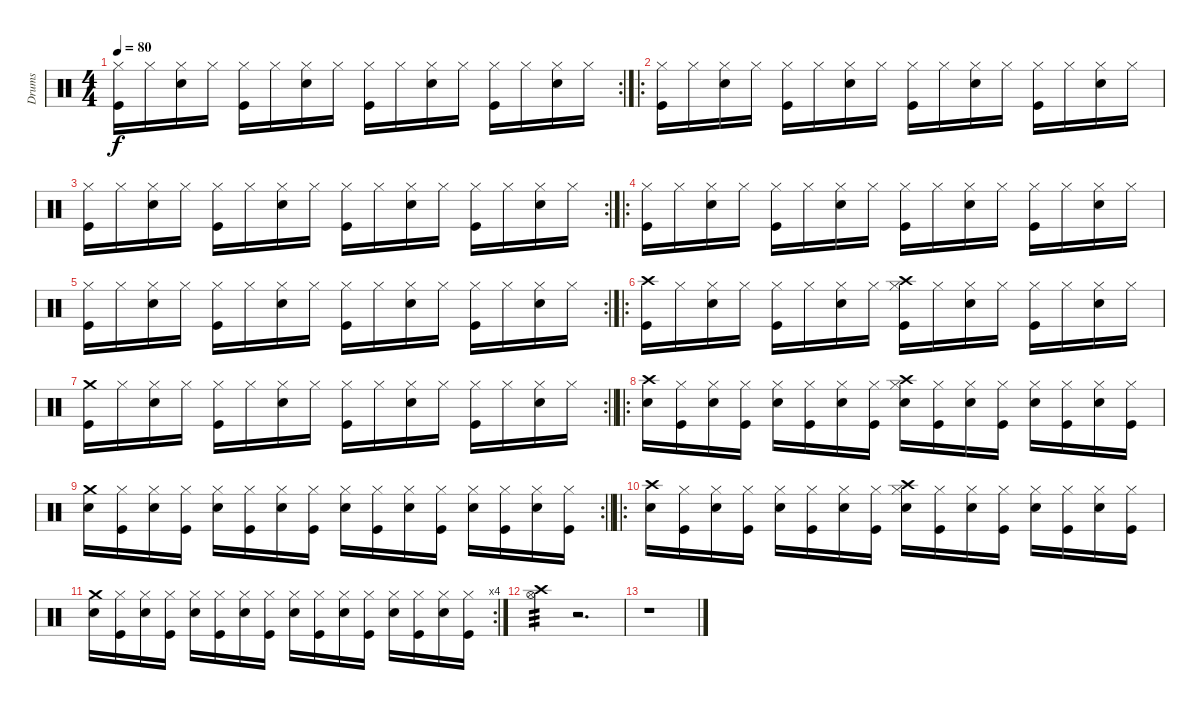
\track ("Drums" "Drums") {instrument percussion}
\staff {score}
\articulation defaults
\rc 2
\ts (4 4)
\tempo 80
\clef neutral
\ks c
("Kick (hit)" "Hi-Hat (closed)").16{dy f} "Hi-Hat (closed)".16 ("Hi-Hat (closed)" "Snare (hit) 2").16 "Hi-Hat (closed)".16 ("Hi-Hat (closed)" "Kick (hit)").16 "Hi-Hat (closed)".16 ("Hi-Hat (closed)" "Snare (hit) 2").16 "Hi-Hat (closed)".16 ("Hi-Hat (closed)" "Kick (hit)").16 "Hi-Hat (closed)".16 ("Hi-Hat (closed)" "Snare (hit) 2").16 "Hi-Hat (closed)".16 ("Hi-Hat (closed)" "Kick (hit)").16 "Hi-Hat (closed)".16 ("Hi-Hat (closed)" "Snare (hit) 2").16 "Hi-Hat (closed)".16 |
\ro
("Kick (hit)" "Hi-Hat (closed)").16 "Hi-Hat (closed)".16 ("Hi-Hat (closed)" "Snare (hit) 2").16 "Hi-Hat (closed)".16 ("Hi-Hat (closed)" "Kick (hit)").16 "Hi-Hat (closed)".16 ("Hi-Hat (closed)" "Snare (hit) 2").16 "Hi-Hat (closed)".16 ("Hi-Hat (closed)" "Kick (hit)").16 "Hi-Hat (closed)".16 ("Hi-Hat (closed)" "Snare (hit) 2").16 "Hi-Hat (closed)".16 ("Hi-Hat (closed)" "Kick (hit)").16 "Hi-Hat (closed)".16 ("Hi-Hat (closed)" "Snare (hit) 2").16 "Hi-Hat (closed)".16 |
\rc 2
("Kick (hit)" "Hi-Hat (closed)").16 "Hi-Hat (closed)".16 ("Hi-Hat (closed)" "Snare (hit) 2").16 "Hi-Hat (closed)".16 ("Hi-Hat (closed)" "Kick (hit)").16 "Hi-Hat (closed)".16 ("Hi-Hat (closed)" "Snare (hit) 2").16 "Hi-Hat (closed)".16 ("Hi-Hat (closed)" "Kick (hit)").16 "Hi-Hat (closed)".16 ("Hi-Hat (closed)" "Snare (hit) 2").16 "Hi-Hat (closed)".16 ("Hi-Hat (closed)" "Kick (hit)").16 "Hi-Hat (closed)".16 ("Hi-Hat (closed)" "Snare (hit) 2").16 "Hi-Hat (closed)".16 |
\ro
("Kick (hit)" "Hi-Hat (closed)").16 "Hi-Hat (closed)".16 ("Hi-Hat (closed)" "Snare (hit) 2").16 "Hi-Hat (closed)".16 ("Hi-Hat (closed)" "Kick (hit)").16 "Hi-Hat (closed)".16 ("Hi-Hat (closed)" "Snare (hit) 2").16 "Hi-Hat (closed)".16 ("Hi-Hat (closed)" "Kick (hit)").16 "Hi-Hat (closed)".16 ("Hi-Hat (closed)" "Snare (hit) 2").16 "Hi-Hat (closed)".16 ("Hi-Hat (closed)" "Kick (hit)").16 "Hi-Hat (closed)".16 ("Hi-Hat (closed)" "Snare (hit) 2").16 "Hi-Hat (closed)".16 |
\rc 2
("Kick (hit)" "Hi-Hat (closed)").16 "Hi-Hat (closed)".16 ("Hi-Hat (closed)" "Snare (hit) 2").16 "Hi-Hat (closed)".16 ("Hi-Hat (closed)" "Kick (hit)").16 "Hi-Hat (closed)".16 ("Hi-Hat (closed)" "Snare (hit) 2").16 "Hi-Hat (closed)".16 ("Hi-Hat (closed)" "Kick (hit)").16 "Hi-Hat (closed)".16 ("Hi-Hat (closed)" "Snare (hit) 2").16 "Hi-Hat (closed)".16 ("Hi-Hat (closed)" "Kick (hit)").16 "Hi-Hat (closed)".16 ("Hi-Hat (closed)" "Snare (hit) 2").16 "Hi-Hat (closed)".16 |
\ro
("Kick (hit)" "Crash high (hit)").16 "Hi-Hat (closed)".16 ("Hi-Hat (closed)" "Snare (hit) 2").16 "Hi-Hat (closed)".16 ("Hi-Hat (closed)" "Kick (hit)").16 "Hi-Hat (closed)".16 ("Hi-Hat (closed)" "Snare (hit) 2").16 "Hi-Hat (closed)".16 ("Hi-Hat (closed)" "Crash high (hit)" "Kick (hit)").16 "Hi-Hat (closed)".16 ("Hi-Hat (closed)" "Snare (hit) 2").16 "Hi-Hat (closed)".16 ("Hi-Hat (closed)" "Kick (hit)").16 "Hi-Hat (closed)".16 ("Hi-Hat (closed)" "Snare (hit) 2").16 "Hi-Hat (closed)".16 |
\rc 2
\barLineRight lightlight
("Kick (hit)" "Crash medium (hit)").16 "Hi-Hat (closed)".16 ("Hi-Hat (closed)" "Snare (hit) 2").16 "Hi-Hat (closed)".16 ("Hi-Hat (closed)" "Kick (hit)").16 "Hi-Hat (closed)".16 ("Hi-Hat (closed)" "Snare (hit) 2").16 "Hi-Hat (closed)".16 ("Hi-Hat (closed)" "Kick (hit)").16 "Hi-Hat (closed)".16 ("Hi-Hat (closed)" "Snare (hit) 2").16 "Hi-Hat (closed)".16 ("Hi-Hat (closed)" "Kick (hit)").16 "Hi-Hat (closed)".16 ("Hi-Hat (closed)" "Snare (hit) 2").16 "Hi-Hat (closed)".16 |
\ro
("Snare (hit) 2" "Crash high (hit)").16 ("Hi-Hat (closed)" "Kick (hit)").16 ("Hi-Hat (closed)" "Snare (hit) 2").16 ("Hi-Hat (closed)" "Kick (hit)").16 ("Hi-Hat (closed)" "Snare (hit) 2").16 ("Hi-Hat (closed)" "Kick (hit)").16 ("Hi-Hat (closed)" "Snare (hit) 2").16 ("Hi-Hat (closed)" "Kick (hit)").16 ("Hi-Hat (closed)" "Crash high (hit)" "Snare (hit) 2").16 ("Hi-Hat (closed)" "Kick (hit)").16 ("Hi-Hat (closed)" "Snare (hit) 2").16 ("Hi-Hat (closed)" "Kick (hit)").16 ("Hi-Hat (closed)" "Snare (hit) 2").16 ("Hi-Hat (closed)" "Kick (hit)").16 ("Hi-Hat (closed)" "Snare (hit) 2").16 ("Hi-Hat (closed)" "Kick (hit)").16 |
\rc 2
\barLineRight lightlight
("Snare (hit) 2" "Crash medium (hit)").16 ("Hi-Hat (closed)" "Kick (hit)").16 ("Hi-Hat (closed)" "Snare (hit) 2").16 ("Hi-Hat (closed)" "Kick (hit)").16 ("Hi-Hat (closed)" "Snare (hit) 2").16 ("Hi-Hat (closed)" "Kick (hit)").16 ("Hi-Hat (closed)" "Snare (hit) 2").16 ("Hi-Hat (closed)" "Kick (hit)").16 ("Hi-Hat (closed)" "Snare (hit) 2").16 ("Hi-Hat (closed)" "Kick (hit)").16 ("Hi-Hat (closed)" "Snare (hit) 2").16 ("Hi-Hat (closed)" "Kick (hit)").16 ("Hi-Hat (closed)" "Snare (hit) 2").16 ("Hi-Hat (closed)" "Kick (hit)").16 ("Hi-Hat (closed)" "Snare (hit) 2").16 ("Hi-Hat (closed)" "Kick (hit)").16 |
\ro
("Snare (hit) 2" "Crash high (hit)").16 ("Hi-Hat (closed)" "Kick (hit)").16 ("Hi-Hat (closed)" "Snare (hit) 2").16 ("Hi-Hat (closed)" "Kick (hit)").16 ("Hi-Hat (closed)" "Snare (hit) 2").16 ("Hi-Hat (closed)" "Kick (hit)").16 ("Hi-Hat (closed)" "Snare (hit) 2").16 ("Hi-Hat (closed)" "Kick (hit)").16 ("Hi-Hat (closed)" "Crash high (hit)" "Snare (hit) 2").16 ("Hi-Hat (closed)" "Kick (hit)").16 ("Hi-Hat (closed)" "Snare (hit) 2").16 ("Hi-Hat (closed)" "Kick (hit)").16 ("Hi-Hat (closed)" "Snare (hit) 2").16 ("Hi-Hat (closed)" "Kick (hit)").16 ("Hi-Hat (closed)" "Snare (hit) 2").16 ("Hi-Hat (closed)" "Kick (hit)").16 |
\rc 4
("Snare (hit) 2" "Crash medium (hit)").16 ("Hi-Hat (closed)" "Kick (hit)").16 ("Hi-Hat (closed)" "Snare (hit) 2").16 ("Hi-Hat (closed)" "Kick (hit)").16 ("Hi-Hat (closed)" "Snare (hit) 2").16 ("Hi-Hat (closed)" "Kick (hit)").16 ("Hi-Hat (closed)" "Snare (hit) 2").16 ("Hi-Hat (closed)" "Kick (hit)").16 ("Hi-Hat (closed)" "Snare (hit) 2").16 ("Hi-Hat (closed)" "Kick (hit)").16 ("Hi-Hat (closed)" "Snare (hit) 2").16 ("Hi-Hat (closed)" "Kick (hit)").16 ("Hi-Hat (closed)" "Snare (hit) 2").16 ("Hi-Hat (closed)" "Kick (hit)").16 ("Hi-Hat (closed)" "Snare (hit) 2").16 ("Hi-Hat (closed)" "Kick (hit)").16 |
("Hi-Hat (open)" "Crash high (hit)").4{tp 3} r.2{d} |
r.1
